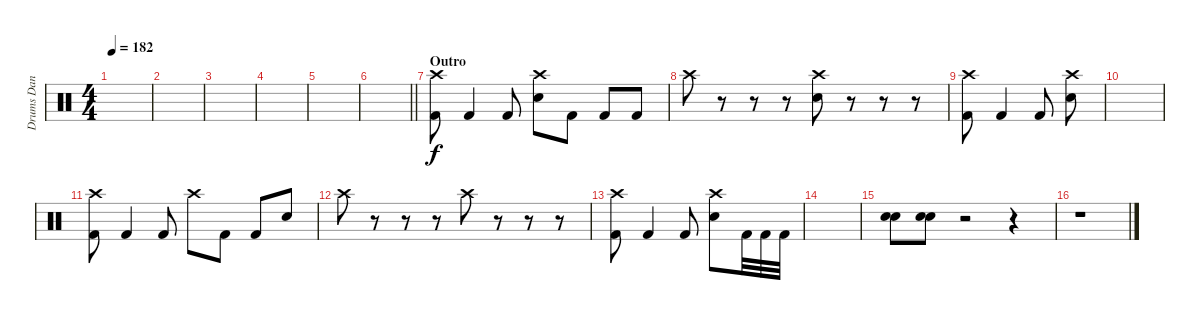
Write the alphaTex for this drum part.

\track ("Drums Dan Searle" "Drums Dan ") {instrument percussion}
\staff {score}
\articulation defaults
\ts (4 4)
\tempo 182
\clef neutral
\ks c
|
|
|
|
|
\barLineRight lightlight
|
\section ("" "Outro")
("Crash high (hit)" "Kick (hit) 2").8 "Kick (hit) 2".4 "Kick (hit) 2".8 ("Crash high (hit)" "Electric Snare (hit)").8 "Kick (hit) 2".8 "Kick (hit) 2".8 "Kick (hit) 2".8 |
"Crash high (hit)".8 r.8 r.8 r.8 ("Crash high (hit)" "Electric Snare (hit)").8 r.8 r.8 r.8 |
("Crash high (hit)" "Kick (hit) 2").8 "Kick (hit) 2".4 "Kick (hit) 2".8 ("Crash high (hit)" "Electric Snare (hit)").8 |
|
("Crash high (hit)" "Kick (hit) 2").8 "Kick (hit) 2".4 "Kick (hit) 2".8 "Crash high (hit)".8 "Kick (hit) 2".8 "Kick (hit) 2".8 "Electric Snare (hit)".8 |
"Crash high (hit)".8 r.8 r.8 r.8 "Crash high (hit)".8 r.8 r.8 r.8 |
("Crash high (hit)" "Kick (hit) 2").8 "Kick (hit) 2".4 "Kick (hit) 2".8 ("Crash high (hit)" "Electric Snare (hit)").8 "Kick (hit) 2".32 "Kick (hit) 2".32 "Kick (hit) 2".32 |
|
("Electric Snare (hit)" "Electric Snare (hit)").8 ("Electric Snare (hit)" "Electric Snare (hit)").8 r.2 r.4 |
r.1
